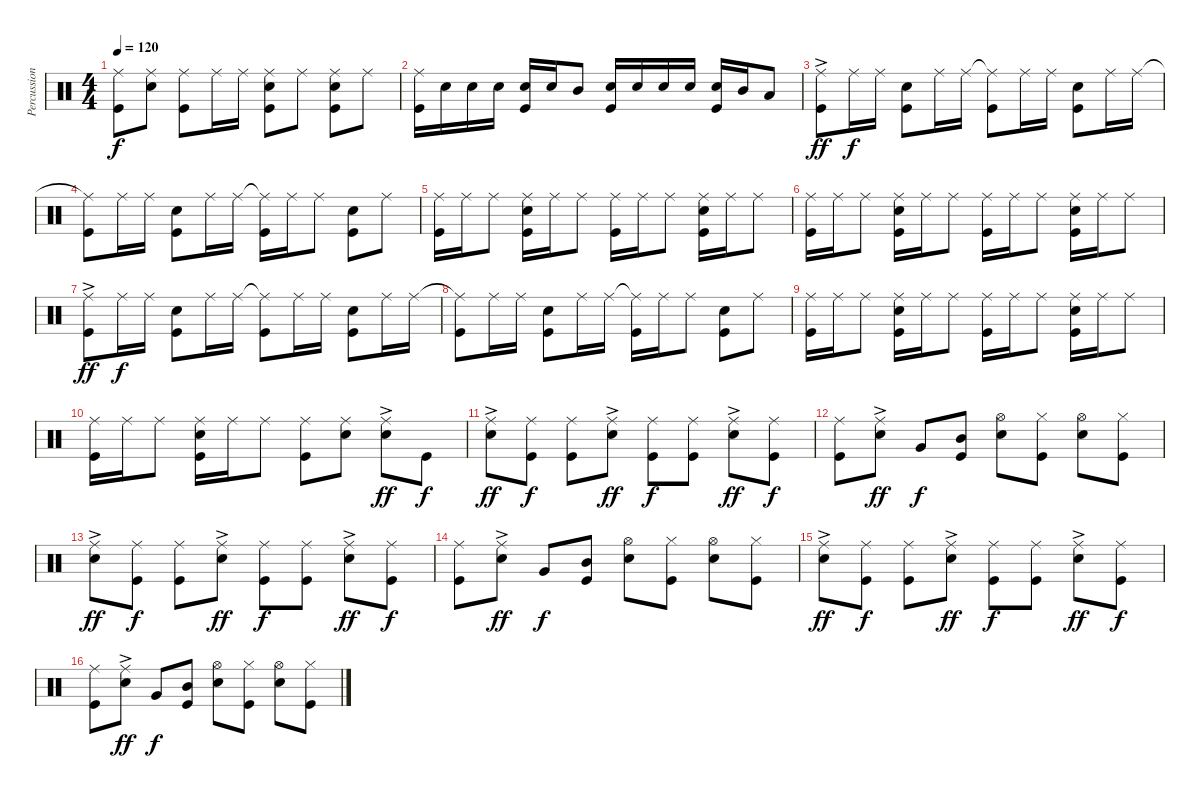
\track ("Percussion" "Percussion") {instrument percussion}
\staff {score}
\articulation defaults
\ts (4 4)
\tempo 120
\clef neutral
\ks c
("Ride (middle)" "Kick (hit)").8{dy f} ("Ride (middle)" "Snare (hit) 2").8 ("Ride (middle)" "Kick (hit)").8 "Ride (middle)".16 "Ride (middle)".16 ("Ride (middle)" "Snare (hit) 2" "Kick (hit)").8 "Ride (middle)".8 ("Ride (middle)" "Snare (hit) 2" "Kick (hit)").8 "Ride (middle)".8 |
("Ride (middle)" "Kick (hit)").16 "Snare (hit) 2".16 "Snare (hit) 2".16 "Snare (hit) 2".16 ("Snare (hit) 2" "Kick (hit)").16 "Snare (hit) 2".16 "Mid Tom (hit)".8 ("Snare (hit) 2" "Kick (hit)").16 "Snare (hit) 2".16 "Snare (hit) 2".16 "Snare (hit) 2".16 ("Snare (hit) 2" "Kick (hit)").16 "Mid Tom (hit)".16 "Low Tom (hit)".8 |
("Ride (middle)"{ac} "Kick (hit)").8{dy ff} "Ride (middle)".16{dy f} "Ride (middle)".16 ("Snare (hit) 2" "Kick (hit)").8 "Ride (middle)".16 "Ride (middle)".16 ("Ride (middle)"{t} "Kick (hit)").8 "Ride (middle)".16 "Ride (middle)".16 ("Snare (hit) 2" "Kick (hit)").8 "Ride (middle)".16 "Ride (middle)".16 |
("Ride (middle)"{t} "Kick (hit)").8 "Ride (middle)".16 "Ride (middle)".16 ("Snare (hit) 2" "Kick (hit)").8 "Ride (middle)".16 "Ride (middle)".16 ("Ride (middle)"{t} "Kick (hit)").16 "Ride (middle)".16 "Ride (middle)".8 ("Snare (hit) 2" "Kick (hit)").8 "Ride (middle)".8 |
("Ride (middle)" "Kick (hit)").16 "Ride (middle)".16 "Ride (middle)".8 ("Ride (middle)" "Snare (hit) 2" "Kick (hit)").16 "Ride (middle)".16 "Ride (middle)".8 ("Ride (middle)" "Kick (hit)").16 "Ride (middle)".16 "Ride (middle)".8 ("Ride (middle)" "Snare (hit) 2" "Kick (hit)").16 "Ride (middle)".16 "Ride (middle)".8 |
("Ride (middle)" "Kick (hit)").16 "Ride (middle)".16 "Ride (middle)".8 ("Ride (middle)" "Snare (hit) 2" "Kick (hit)").16 "Ride (middle)".16 "Ride (middle)".8 ("Ride (middle)" "Kick (hit)").16 "Ride (middle)".16 "Ride (middle)".8 ("Ride (middle)" "Snare (hit) 2" "Kick (hit)").16 "Ride (middle)".16 "Ride (middle)".8 |
("Ride (middle)"{ac} "Kick (hit)").8{dy ff} "Ride (middle)".16{dy f} "Ride (middle)".16 ("Snare (hit) 2" "Kick (hit)").8 "Ride (middle)".16 "Ride (middle)".16 ("Ride (middle)"{t} "Kick (hit)").8 "Ride (middle)".16 "Ride (middle)".16 ("Snare (hit) 2" "Kick (hit)").8 "Ride (middle)".16 "Ride (middle)".16 |
("Ride (middle)"{t} "Kick (hit)").8 "Ride (middle)".16 "Ride (middle)".16 ("Snare (hit) 2" "Kick (hit)").8 "Ride (middle)".16 "Ride (middle)".16 ("Ride (middle)"{t} "Kick (hit)").16 "Ride (middle)".16 "Ride (middle)".8 ("Snare (hit) 2" "Kick (hit)").8 "Ride (middle)".8 |
("Ride (middle)" "Kick (hit)").16 "Ride (middle)".16 "Ride (middle)".8 ("Ride (middle)" "Snare (hit) 2" "Kick (hit)").16 "Ride (middle)".16 "Ride (middle)".8 ("Ride (middle)" "Kick (hit)").16 "Ride (middle)".16 "Ride (middle)".8 ("Ride (middle)" "Snare (hit) 2" "Kick (hit)").16 "Ride (middle)".16 "Ride (middle)".8 |
("Ride (middle)" "Kick (hit)").16 "Ride (middle)".16 "Ride (middle)".8 ("Ride (middle)" "Snare (hit) 2" "Kick (hit)").16 "Ride (middle)".16 "Ride (middle)".8 ("Ride (middle)" "Kick (hit)").8 ("Ride (middle)" "Snare (hit) 2").8 ("Ride (middle)"{ac} "Snare (hit) 2").8{dy ff} "Kick (hit)".8{dy f} |
("Ride (middle)"{ac} "Snare (hit) 2").8{dy ff} ("Ride (middle)" "Kick (hit)").8{dy f} ("Ride (middle)" "Kick (hit)").8 ("Ride (middle)"{ac} "Snare (hit) 2").8{dy ff} ("Ride (middle)" "Kick (hit)").8{dy f} ("Ride (middle)" "Kick (hit)").8 ("Ride (middle)"{ac} "Snare (hit) 2").8{dy ff} ("Ride (middle)" "Kick (hit)").8{dy f} |
("Ride (middle)" "Kick (hit)").8 ("Ride (middle)"{ac} "Snare (hit) 2").8{dy ff} "Very Low Tom (hit)".8{dy f} ("Mid Tom (hit)" "Kick (hit)").8 ("Hi-Hat (open)" "Snare (hit) 2").8 ("Hi-Hat (closed)" "Kick (hit)").8 ("Hi-Hat (open)" "Snare (hit) 2").8 ("Hi-Hat (closed)" "Kick (hit)").8 |
("Ride (middle)"{ac} "Snare (hit) 2").8{dy ff} ("Ride (middle)" "Kick (hit)").8{dy f} ("Ride (middle)" "Kick (hit)").8 ("Ride (middle)"{ac} "Snare (hit) 2").8{dy ff} ("Ride (middle)" "Kick (hit)").8{dy f} ("Ride (middle)" "Kick (hit)").8 ("Ride (middle)"{ac} "Snare (hit) 2").8{dy ff} ("Ride (middle)" "Kick (hit)").8{dy f} |
("Ride (middle)" "Kick (hit)").8 ("Ride (middle)"{ac} "Snare (hit) 2").8{dy ff} "Very Low Tom (hit)".8{dy f} ("Mid Tom (hit)" "Kick (hit)").8 ("Hi-Hat (open)" "Snare (hit) 2").8 ("Hi-Hat (closed)" "Kick (hit)").8 ("Hi-Hat (open)" "Snare (hit) 2").8 ("Hi-Hat (closed)" "Kick (hit)").8 |
("Ride (middle)"{ac} "Snare (hit) 2").8{dy ff} ("Ride (middle)" "Kick (hit)").8{dy f} ("Ride (middle)" "Kick (hit)").8 ("Ride (middle)"{ac} "Snare (hit) 2").8{dy ff} ("Ride (middle)" "Kick (hit)").8{dy f} ("Ride (middle)" "Kick (hit)").8 ("Ride (middle)"{ac} "Snare (hit) 2").8{dy ff} ("Ride (middle)" "Kick (hit)").8{dy f} |
("Ride (middle)" "Kick (hit)").8 ("Ride (middle)"{ac} "Snare (hit) 2").8{dy ff} "Very Low Tom (hit)".8{dy f} ("Mid Tom (hit)" "Kick (hit)").8 ("Hi-Hat (open)" "Snare (hit) 2").8 ("Hi-Hat (closed)" "Kick (hit)").8 ("Hi-Hat (open)" "Snare (hit) 2").8 ("Hi-Hat (closed)" "Kick (hit)").8
